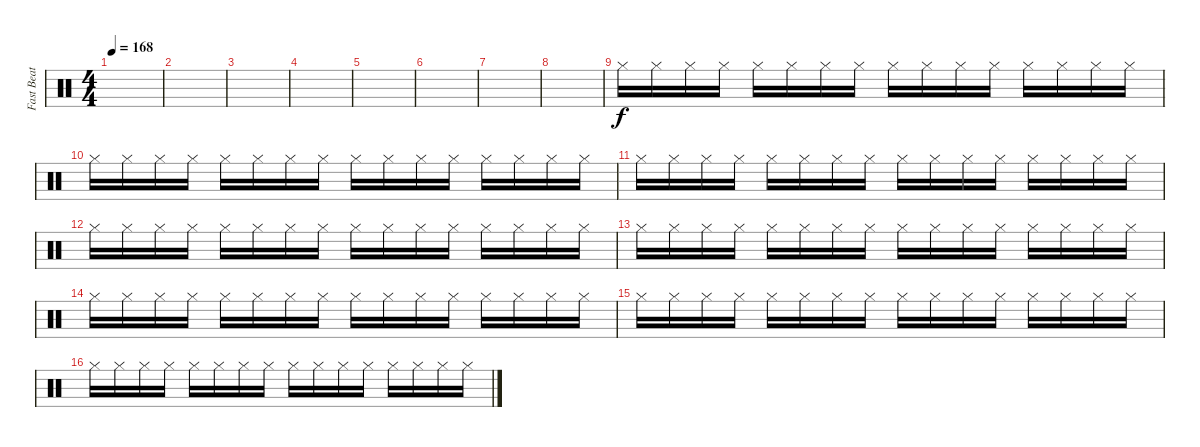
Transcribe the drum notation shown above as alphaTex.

\track ("Fast Beat" "Fast Beat") {instrument percussion}
\staff {score}
\articulation defaults
\ts (4 4)
\tempo 168
\clef neutral
\ks c
|
|
|
|
|
|
|
|
"Hi-Hat (closed)".16 "Hi-Hat (closed)".16 "Hi-Hat (closed)".16 "Hi-Hat (closed)".16 "Hi-Hat (closed)".16 "Hi-Hat (closed)".16 "Hi-Hat (closed)".16 "Hi-Hat (closed)".16 "Hi-Hat (closed)".16 "Hi-Hat (closed)".16 "Hi-Hat (closed)".16 "Hi-Hat (closed)".16 "Hi-Hat (closed)".16 "Hi-Hat (closed)".16 "Hi-Hat (closed)".16 "Hi-Hat (closed)".16 |
"Hi-Hat (closed)".16 "Hi-Hat (closed)".16 "Hi-Hat (closed)".16 "Hi-Hat (closed)".16 "Hi-Hat (closed)".16 "Hi-Hat (closed)".16 "Hi-Hat (closed)".16 "Hi-Hat (closed)".16 "Hi-Hat (closed)".16 "Hi-Hat (closed)".16 "Hi-Hat (closed)".16 "Hi-Hat (closed)".16 "Hi-Hat (closed)".16 "Hi-Hat (closed)".16 "Hi-Hat (closed)".16 "Hi-Hat (closed)".16 |
"Hi-Hat (closed)".16 "Hi-Hat (closed)".16 "Hi-Hat (closed)".16 "Hi-Hat (closed)".16 "Hi-Hat (closed)".16 "Hi-Hat (closed)".16 "Hi-Hat (closed)".16 "Hi-Hat (closed)".16 "Hi-Hat (closed)".16 "Hi-Hat (closed)".16 "Hi-Hat (closed)".16 "Hi-Hat (closed)".16 "Hi-Hat (closed)".16 "Hi-Hat (closed)".16 "Hi-Hat (closed)".16 "Hi-Hat (closed)".16 |
"Hi-Hat (closed)".16 "Hi-Hat (closed)".16 "Hi-Hat (closed)".16 "Hi-Hat (closed)".16 "Hi-Hat (closed)".16 "Hi-Hat (closed)".16 "Hi-Hat (closed)".16 "Hi-Hat (closed)".16 "Hi-Hat (closed)".16 "Hi-Hat (closed)".16 "Hi-Hat (closed)".16 "Hi-Hat (closed)".16 "Hi-Hat (closed)".16 "Hi-Hat (closed)".16 "Hi-Hat (closed)".16 "Hi-Hat (closed)".16 |
"Hi-Hat (closed)".16 "Hi-Hat (closed)".16 "Hi-Hat (closed)".16 "Hi-Hat (closed)".16 "Hi-Hat (closed)".16 "Hi-Hat (closed)".16 "Hi-Hat (closed)".16 "Hi-Hat (closed)".16 "Hi-Hat (closed)".16 "Hi-Hat (closed)".16 "Hi-Hat (closed)".16 "Hi-Hat (closed)".16 "Hi-Hat (closed)".16 "Hi-Hat (closed)".16 "Hi-Hat (closed)".16 "Hi-Hat (closed)".16 |
"Hi-Hat (closed)".16 "Hi-Hat (closed)".16 "Hi-Hat (closed)".16 "Hi-Hat (closed)".16 "Hi-Hat (closed)".16 "Hi-Hat (closed)".16 "Hi-Hat (closed)".16 "Hi-Hat (closed)".16 "Hi-Hat (closed)".16 "Hi-Hat (closed)".16 "Hi-Hat (closed)".16 "Hi-Hat (closed)".16 "Hi-Hat (closed)".16 "Hi-Hat (closed)".16 "Hi-Hat (closed)".16 "Hi-Hat (closed)".16 |
"Hi-Hat (closed)".16 "Hi-Hat (closed)".16 "Hi-Hat (closed)".16 "Hi-Hat (closed)".16 "Hi-Hat (closed)".16 "Hi-Hat (closed)".16 "Hi-Hat (closed)".16 "Hi-Hat (closed)".16 "Hi-Hat (closed)".16 "Hi-Hat (closed)".16 "Hi-Hat (closed)".16 "Hi-Hat (closed)".16 "Hi-Hat (closed)".16 "Hi-Hat (closed)".16 "Hi-Hat (closed)".16 "Hi-Hat (closed)".16 |
"Hi-Hat (closed)".16 "Hi-Hat (closed)".16 "Hi-Hat (closed)".16 "Hi-Hat (closed)".16 "Hi-Hat (closed)".16 "Hi-Hat (closed)".16 "Hi-Hat (closed)".16 "Hi-Hat (closed)".16 "Hi-Hat (closed)".16 "Hi-Hat (closed)".16 "Hi-Hat (closed)".16 "Hi-Hat (closed)".16 "Hi-Hat (closed)".16 "Hi-Hat (closed)".16 "Hi-Hat (closed)".16 "Hi-Hat (closed)".16
